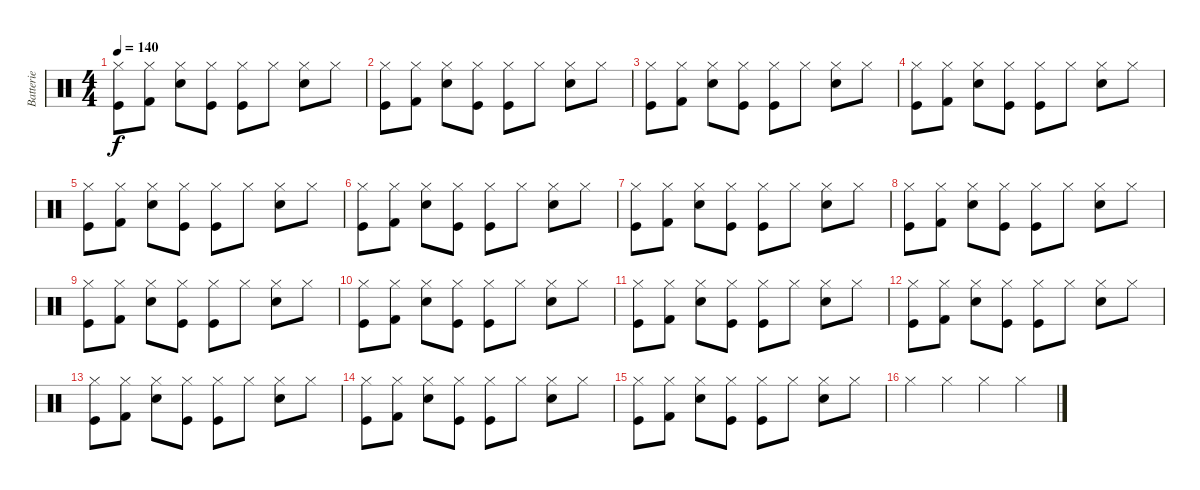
\track ("Batterie" "Batterie") {instrument percussion}
\staff {score}
\articulation defaults
\ts (4 4)
\tempo 140
\clef neutral
\ks c
("Hi-Hat (closed)" "Kick (hit)").8{dy f} ("Hi-Hat (closed)" "Kick (hit) 2").8 ("Hi-Hat (closed)" "Snare (hit) 2").8 ("Hi-Hat (closed)" "Kick (hit)").8 ("Hi-Hat (closed)" "Kick (hit)").8 "Hi-Hat (closed)".8 ("Hi-Hat (closed)" "Snare (hit) 2").8 "Hi-Hat (closed)".8 |
("Hi-Hat (closed)" "Kick (hit)").8 ("Hi-Hat (closed)" "Kick (hit) 2").8 ("Hi-Hat (closed)" "Snare (hit) 2").8 ("Hi-Hat (closed)" "Kick (hit)").8 ("Hi-Hat (closed)" "Kick (hit)").8 "Hi-Hat (closed)".8 ("Hi-Hat (closed)" "Snare (hit) 2").8 "Hi-Hat (closed)".8 |
("Hi-Hat (closed)" "Kick (hit)").8 ("Hi-Hat (closed)" "Kick (hit) 2").8 ("Hi-Hat (closed)" "Snare (hit) 2").8 ("Hi-Hat (closed)" "Kick (hit)").8 ("Hi-Hat (closed)" "Kick (hit)").8 "Hi-Hat (closed)".8 ("Hi-Hat (closed)" "Snare (hit) 2").8 "Hi-Hat (closed)".8 |
("Hi-Hat (closed)" "Kick (hit)").8 ("Hi-Hat (closed)" "Kick (hit) 2").8 ("Hi-Hat (closed)" "Snare (hit) 2").8 ("Hi-Hat (closed)" "Kick (hit)").8 ("Hi-Hat (closed)" "Kick (hit)").8 "Hi-Hat (closed)".8 ("Hi-Hat (closed)" "Snare (hit) 2").8 "Hi-Hat (closed)".8 |
("Hi-Hat (closed)" "Kick (hit)").8 ("Hi-Hat (closed)" "Kick (hit) 2").8 ("Hi-Hat (closed)" "Snare (hit) 2").8 ("Hi-Hat (closed)" "Kick (hit)").8 ("Hi-Hat (closed)" "Kick (hit)").8 "Hi-Hat (closed)".8 ("Hi-Hat (closed)" "Snare (hit) 2").8 "Hi-Hat (closed)".8 |
("Hi-Hat (closed)" "Kick (hit)").8 ("Hi-Hat (closed)" "Kick (hit) 2").8 ("Hi-Hat (closed)" "Snare (hit) 2").8 ("Hi-Hat (closed)" "Kick (hit)").8 ("Hi-Hat (closed)" "Kick (hit)").8 "Hi-Hat (closed)".8 ("Hi-Hat (closed)" "Snare (hit) 2").8 "Hi-Hat (closed)".8 |
("Hi-Hat (closed)" "Kick (hit)").8 ("Hi-Hat (closed)" "Kick (hit) 2").8 ("Hi-Hat (closed)" "Snare (hit) 2").8 ("Hi-Hat (closed)" "Kick (hit)").8 ("Hi-Hat (closed)" "Kick (hit)").8 "Hi-Hat (closed)".8 ("Hi-Hat (closed)" "Snare (hit) 2").8 "Hi-Hat (closed)".8 |
("Hi-Hat (closed)" "Kick (hit)").8 ("Hi-Hat (closed)" "Kick (hit) 2").8 ("Hi-Hat (closed)" "Snare (hit) 2").8 ("Hi-Hat (closed)" "Kick (hit)").8 ("Hi-Hat (closed)" "Kick (hit)").8 "Hi-Hat (closed)".8 ("Hi-Hat (closed)" "Snare (hit) 2").8 "Hi-Hat (closed)".8 |
("Hi-Hat (closed)" "Kick (hit)").8 ("Hi-Hat (closed)" "Kick (hit) 2").8 ("Hi-Hat (closed)" "Snare (hit) 2").8 ("Hi-Hat (closed)" "Kick (hit)").8 ("Hi-Hat (closed)" "Kick (hit)").8 "Hi-Hat (closed)".8 ("Hi-Hat (closed)" "Snare (hit) 2").8 "Hi-Hat (closed)".8 |
("Hi-Hat (closed)" "Kick (hit)").8 ("Hi-Hat (closed)" "Kick (hit) 2").8 ("Hi-Hat (closed)" "Snare (hit) 2").8 ("Hi-Hat (closed)" "Kick (hit)").8 ("Hi-Hat (closed)" "Kick (hit)").8 "Hi-Hat (closed)".8 ("Hi-Hat (closed)" "Snare (hit) 2").8 "Hi-Hat (closed)".8 |
("Hi-Hat (closed)" "Kick (hit)").8 ("Hi-Hat (closed)" "Kick (hit) 2").8 ("Hi-Hat (closed)" "Snare (hit) 2").8 ("Hi-Hat (closed)" "Kick (hit)").8 ("Hi-Hat (closed)" "Kick (hit)").8 "Hi-Hat (closed)".8 ("Hi-Hat (closed)" "Snare (hit) 2").8 "Hi-Hat (closed)".8 |
("Hi-Hat (closed)" "Kick (hit)").8 ("Hi-Hat (closed)" "Kick (hit) 2").8 ("Hi-Hat (closed)" "Snare (hit) 2").8 ("Hi-Hat (closed)" "Kick (hit)").8 ("Hi-Hat (closed)" "Kick (hit)").8 "Hi-Hat (closed)".8 ("Hi-Hat (closed)" "Snare (hit) 2").8 "Hi-Hat (closed)".8 |
("Hi-Hat (closed)" "Kick (hit)").8 ("Hi-Hat (closed)" "Kick (hit) 2").8 ("Hi-Hat (closed)" "Snare (hit) 2").8 ("Hi-Hat (closed)" "Kick (hit)").8 ("Hi-Hat (closed)" "Kick (hit)").8 "Hi-Hat (closed)".8 ("Hi-Hat (closed)" "Snare (hit) 2").8 "Hi-Hat (closed)".8 |
("Hi-Hat (closed)" "Kick (hit)").8 ("Hi-Hat (closed)" "Kick (hit) 2").8 ("Hi-Hat (closed)" "Snare (hit) 2").8 ("Hi-Hat (closed)" "Kick (hit)").8 ("Hi-Hat (closed)" "Kick (hit)").8 "Hi-Hat (closed)".8 ("Hi-Hat (closed)" "Snare (hit) 2").8 "Hi-Hat (closed)".8 |
("Hi-Hat (closed)" "Kick (hit)").8 ("Hi-Hat (closed)" "Kick (hit) 2").8 ("Hi-Hat (closed)" "Snare (hit) 2").8 ("Hi-Hat (closed)" "Kick (hit)").8 ("Hi-Hat (closed)" "Kick (hit)").8 "Hi-Hat (closed)".8 ("Hi-Hat (closed)" "Snare (hit) 2").8 "Hi-Hat (closed)".8 |
"Hi-Hat (closed)".4 "Hi-Hat (closed)".4 "Hi-Hat (closed)".4 "Hi-Hat (closed)".4
